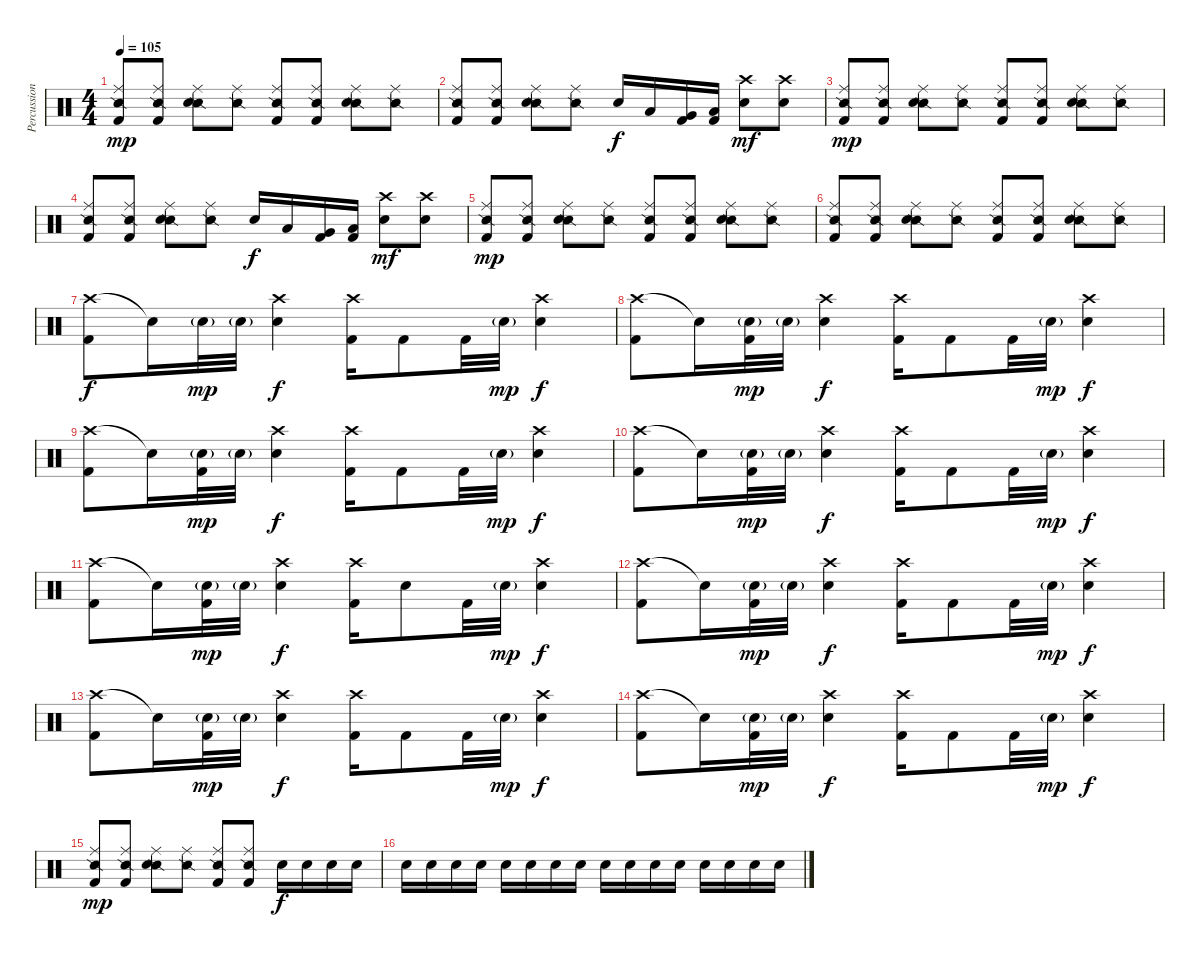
\track ("Percussioni" "Percussion") {instrument percussion}
\staff {score}
\articulation defaults
\ts (4 4)
\tempo 105
\clef neutral
\ks c
("Snare (side stick) 2" "Ride (middle)" "Kick (hit) 2").8{dy mp} ("Snare (side stick) 2" "Ride (middle)" "Kick (hit) 2").8 ("Snare (side stick) 2" "Ride (middle)" "Snare (hit) 2").8 ("Snare (side stick) 2" "Ride (middle)").8 ("Snare (side stick) 2" "Ride (middle)" "Kick (hit) 2").8 ("Snare (side stick) 2" "Ride (middle)" "Kick (hit) 2").8 ("Snare (side stick) 2" "Ride (middle)" "Snare (hit) 2").8 ("Snare (side stick) 2" "Ride (middle)").8 |
("Snare (side stick) 2" "Ride (middle)" "Kick (hit) 2").8 ("Snare (side stick) 2" "Ride (middle)" "Kick (hit) 2").8 ("Snare (side stick) 2" "Ride (middle)" "Snare (hit) 2").8 ("Snare (side stick) 2" "Ride (middle)").8 "Snare (hit) 2".16{dy f} "Low Tom (hit)".16 ("Very Low Tom (hit)" "Kick (hit) 2").16 ("Low Floor Tom (hit)" "Kick (hit) 2").16 ("Crash high (hit)" "Snare (hit) 2").8{dy mf} ("Crash high (hit)" "Snare (hit) 2").8 |
("Snare (side stick) 2" "Ride (middle)" "Kick (hit) 2").8{dy mp} ("Snare (side stick) 2" "Ride (middle)" "Kick (hit) 2").8 ("Snare (side stick) 2" "Ride (middle)" "Snare (hit) 2").8 ("Snare (side stick) 2" "Ride (middle)").8 ("Snare (side stick) 2" "Ride (middle)" "Kick (hit) 2").8 ("Snare (side stick) 2" "Ride (middle)" "Kick (hit) 2").8 ("Snare (side stick) 2" "Ride (middle)" "Snare (hit) 2").8 ("Snare (side stick) 2" "Ride (middle)").8 |
("Snare (side stick) 2" "Ride (middle)" "Kick (hit) 2").8 ("Snare (side stick) 2" "Ride (middle)" "Kick (hit) 2").8 ("Snare (side stick) 2" "Ride (middle)" "Snare (hit) 2").8 ("Snare (side stick) 2" "Ride (middle)").8 "Snare (hit) 2".16{dy f} "Low Tom (hit)".16 ("Very Low Tom (hit)" "Kick (hit) 2").16 ("Low Floor Tom (hit)" "Kick (hit) 2").16 ("Crash high (hit)" "Snare (hit) 2").8{dy mf} ("Crash high (hit)" "Snare (hit) 2").8 |
("Snare (side stick) 2" "Ride (middle)" "Kick (hit) 2").8{dy mp} ("Snare (side stick) 2" "Ride (middle)" "Kick (hit) 2").8 ("Snare (side stick) 2" "Ride (middle)" "Snare (hit) 2").8 ("Snare (side stick) 2" "Ride (middle)").8 ("Snare (side stick) 2" "Ride (middle)" "Kick (hit) 2").8 ("Snare (side stick) 2" "Ride (middle)" "Kick (hit) 2").8 ("Snare (side stick) 2" "Ride (middle)" "Snare (hit) 2").8 ("Snare (side stick) 2" "Ride (middle)").8 |
("Snare (side stick) 2" "Ride (middle)" "Kick (hit) 2").8 ("Snare (side stick) 2" "Ride (middle)" "Kick (hit) 2").8 ("Snare (side stick) 2" "Ride (middle)" "Snare (hit) 2").8 ("Snare (side stick) 2" "Ride (middle)").8 ("Snare (side stick) 2" "Ride (middle)" "Kick (hit) 2").8 ("Snare (side stick) 2" "Ride (middle)" "Kick (hit) 2").8 ("Snare (side stick) 2" "Ride (middle)" "Snare (hit) 2").8 ("Snare (side stick) 2" "Ride (middle)").8 |
("Crash high (hit)" "Kick (hit) 2").8{dy f} "Snare (hit)"{t}.16 "Snare (hit) 2"{g}.32{dy mp} "Snare (hit) 2"{g}.32 ("Crash high (hit)" "Snare (hit) 2").4{dy f} ("Crash high (hit)" "Kick (hit) 2").16 "Kick (hit) 2".8 "Kick (hit) 2".32 "Snare (hit) 2"{g}.32{dy mp} ("Crash high (hit)" "Snare (hit) 2").4{dy f} |
("Crash high (hit)" "Kick (hit) 2").8 "Snare (hit)"{t}.16 ("Snare (hit) 2"{g} "Kick (hit) 2").32{dy mp} "Snare (hit) 2"{g}.32 ("Crash high (hit)" "Snare (hit) 2").4{dy f} ("Crash high (hit)" "Kick (hit) 2").16 "Kick (hit) 2".8 "Kick (hit) 2".32 "Snare (hit) 2"{g}.32{dy mp} ("Crash high (hit)" "Snare (hit) 2").4{dy f} |
("Crash high (hit)" "Kick (hit) 2").8 "Snare (hit)"{t}.16 ("Snare (hit) 2"{g} "Kick (hit) 2").32{dy mp} "Snare (hit) 2"{g}.32 ("Crash high (hit)" "Snare (hit) 2").4{dy f} ("Crash high (hit)" "Kick (hit) 2").16 "Kick (hit) 2".8 "Kick (hit) 2".32 "Snare (hit) 2"{g}.32{dy mp} ("Crash high (hit)" "Snare (hit) 2").4{dy f} |
("Crash high (hit)" "Kick (hit) 2").8 "Snare (hit)"{t}.16 ("Snare (hit) 2"{g} "Kick (hit) 2").32{dy mp} "Snare (hit) 2"{g}.32 ("Crash high (hit)" "Snare (hit) 2").4{dy f} ("Crash high (hit)" "Kick (hit) 2").16 "Kick (hit) 2".8 "Kick (hit) 2".32 "Snare (hit) 2"{g}.32{dy mp} ("Crash high (hit)" "Snare (hit) 2").4{dy f} |
("Crash high (hit)" "Kick (hit) 2").8 "Snare (hit)"{t}.16 ("Snare (hit) 2"{g} "Kick (hit) 2").32{dy mp} "Snare (hit) 2"{g}.32 ("Crash high (hit)" "Snare (hit) 2").4{dy f} ("Crash high (hit)" "Kick (hit) 2").16 "Snare (hit) 2".8 "Kick (hit) 2".32 "Snare (hit) 2"{g}.32{dy mp} ("Crash high (hit)" "Snare (hit) 2").4{dy f} |
("Crash high (hit)" "Kick (hit) 2").8 "Snare (hit)"{t}.16 ("Snare (hit) 2"{g} "Kick (hit) 2").32{dy mp} "Snare (hit) 2"{g}.32 ("Crash high (hit)" "Snare (hit) 2").4{dy f} ("Crash high (hit)" "Kick (hit) 2").16 "Kick (hit) 2".8 "Kick (hit) 2".32 "Snare (hit) 2"{g}.32{dy mp} ("Crash high (hit)" "Snare (hit) 2").4{dy f} |
("Crash high (hit)" "Kick (hit) 2").8 "Snare (hit)"{t}.16 ("Snare (hit) 2"{g} "Kick (hit) 2").32{dy mp} "Snare (hit) 2"{g}.32 ("Crash high (hit)" "Snare (hit) 2").4{dy f} ("Crash high (hit)" "Kick (hit) 2").16 "Kick (hit) 2".8 "Kick (hit) 2".32 "Snare (hit) 2"{g}.32{dy mp} ("Crash high (hit)" "Snare (hit) 2").4{dy f} |
("Crash high (hit)" "Kick (hit) 2").8 "Snare (hit)"{t}.16 ("Snare (hit) 2"{g} "Kick (hit) 2").32{dy mp} "Snare (hit) 2"{g}.32 ("Crash high (hit)" "Snare (hit) 2").4{dy f} ("Crash high (hit)" "Kick (hit) 2").16 "Kick (hit) 2".8 "Kick (hit) 2".32 "Snare (hit) 2"{g}.32{dy mp} ("Crash high (hit)" "Snare (hit) 2").4{dy f} |
("Snare (side stick) 2" "Ride (middle)" "Kick (hit) 2").8{dy mp} ("Snare (side stick) 2" "Ride (middle)" "Kick (hit) 2").8 ("Snare (side stick) 2" "Ride (middle)" "Snare (hit) 2").8 ("Snare (side stick) 2" "Ride (middle)").8 ("Snare (side stick) 2" "Ride (middle)" "Kick (hit) 2").8 ("Snare (side stick) 2" "Ride (middle)" "Kick (hit) 2").8 "Snare (hit) 2".16{dy f} "Snare (hit) 2".16 "Snare (hit) 2".16 "Snare (hit) 2".16 |
"Snare (hit) 2".16 "Snare (hit) 2".16 "Snare (hit) 2".16 "Snare (hit) 2".16 "Snare (hit) 2".16 "Snare (hit) 2".16 "Snare (hit) 2".16 "Snare (hit) 2".16 "Snare (hit) 2".16 "Snare (hit) 2".16 "Snare (hit) 2".16 "Snare (hit) 2".16 "Snare (hit) 2".16 "Snare (hit) 2".16 "Snare (hit) 2".16 "Snare (hit) 2".16
